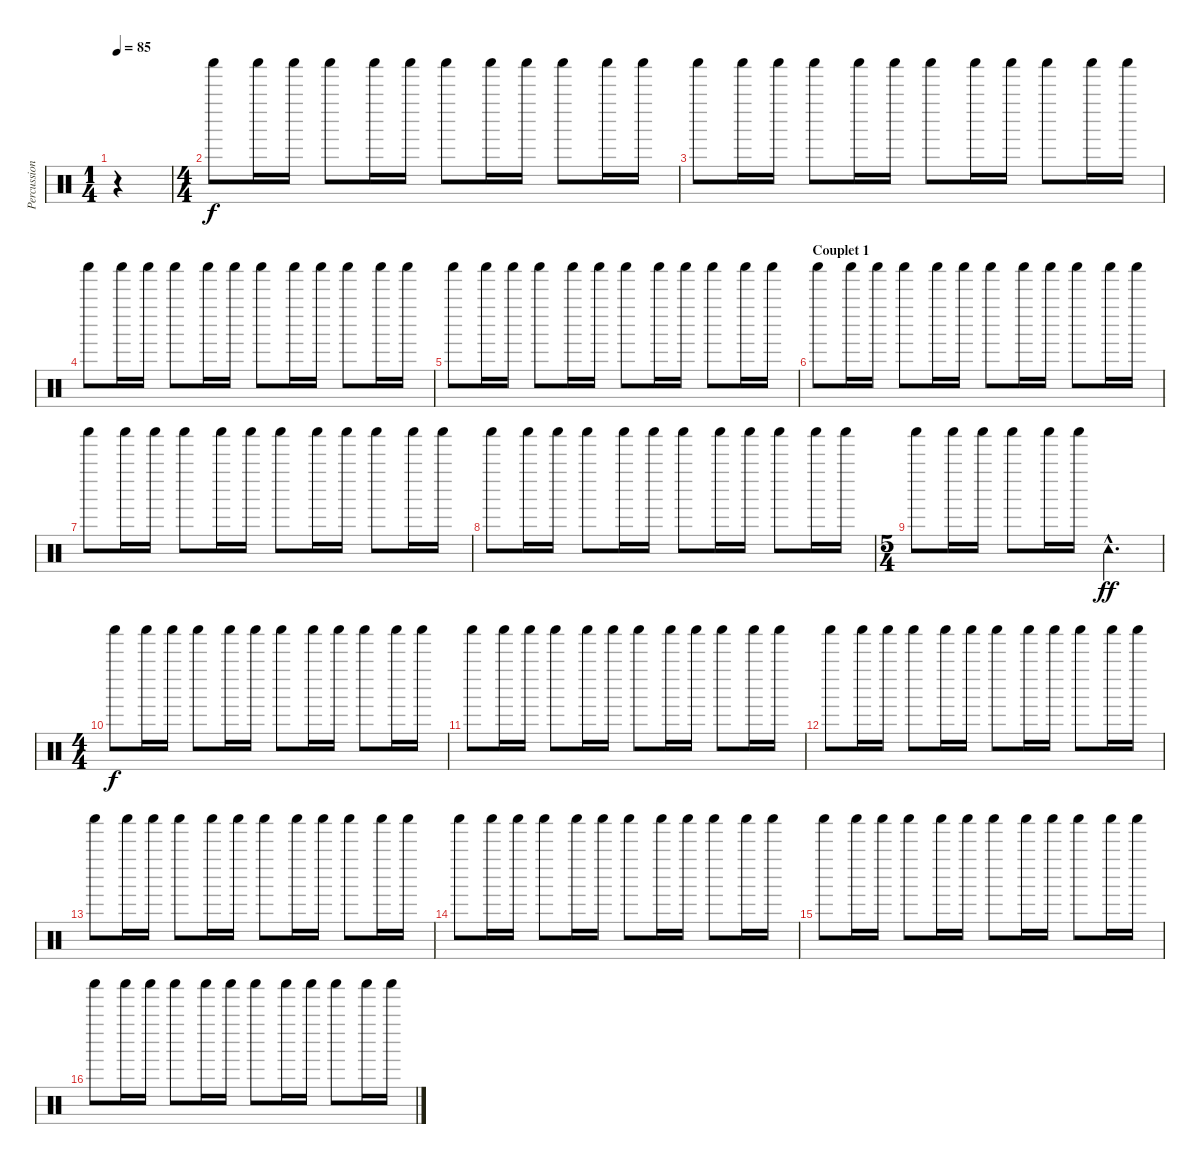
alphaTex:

\track ("Percussion" "Percussion") {instrument percussion}
\staff {score}
\articulation defaults
\ts (1 4)
\tempo 85
\clef neutral
\ks c
r.4{dy f} |
\ts (4 4)
"Shaker (hit)".8 "Shaker (hit)".16 "Shaker (hit)".16 "Shaker (hit)".8 "Shaker (hit)".16 "Shaker (hit)".16 "Shaker (hit)".8 "Shaker (hit)".16 "Shaker (hit)".16 "Shaker (hit)".8 "Shaker (hit)".16 "Shaker (hit)".16 |
"Shaker (hit)".8 "Shaker (hit)".16 "Shaker (hit)".16 "Shaker (hit)".8 "Shaker (hit)".16 "Shaker (hit)".16 "Shaker (hit)".8 "Shaker (hit)".16 "Shaker (hit)".16 "Shaker (hit)".8 "Shaker (hit)".16 "Shaker (hit)".16 |
"Shaker (hit)".8 "Shaker (hit)".16 "Shaker (hit)".16 "Shaker (hit)".8 "Shaker (hit)".16 "Shaker (hit)".16 "Shaker (hit)".8 "Shaker (hit)".16 "Shaker (hit)".16 "Shaker (hit)".8 "Shaker (hit)".16 "Shaker (hit)".16 |
"Shaker (hit)".8 "Shaker (hit)".16 "Shaker (hit)".16 "Shaker (hit)".8 "Shaker (hit)".16 "Shaker (hit)".16 "Shaker (hit)".8 "Shaker (hit)".16 "Shaker (hit)".16 "Shaker (hit)".8 "Shaker (hit)".16 "Shaker (hit)".16 |
\section ("" "Couplet 1")
"Shaker (hit)".8 "Shaker (hit)".16 "Shaker (hit)".16 "Shaker (hit)".8 "Shaker (hit)".16 "Shaker (hit)".16 "Shaker (hit)".8 "Shaker (hit)".16 "Shaker (hit)".16 "Shaker (hit)".8 "Shaker (hit)".16 "Shaker (hit)".16 |
"Shaker (hit)".8 "Shaker (hit)".16 "Shaker (hit)".16 "Shaker (hit)".8 "Shaker (hit)".16 "Shaker (hit)".16 "Shaker (hit)".8 "Shaker (hit)".16 "Shaker (hit)".16 "Shaker (hit)".8 "Shaker (hit)".16 "Shaker (hit)".16 |
"Shaker (hit)".8 "Shaker (hit)".16 "Shaker (hit)".16 "Shaker (hit)".8 "Shaker (hit)".16 "Shaker (hit)".16 "Shaker (hit)".8 "Shaker (hit)".16 "Shaker (hit)".16 "Shaker (hit)".8 "Shaker (hit)".16 "Shaker (hit)".16 |
\ts (5 4)
"Shaker (hit)".8 "Shaker (hit)".16 "Shaker (hit)".16 "Shaker (hit)".8 "Shaker (hit)".16 "Shaker (hit)".16 "Tambourine (hit)"{hac}.2{d dy ff} |
\ts (4 4)
"Shaker (hit)".8{dy f} "Shaker (hit)".16 "Shaker (hit)".16 "Shaker (hit)".8 "Shaker (hit)".16 "Shaker (hit)".16 "Shaker (hit)".8 "Shaker (hit)".16 "Shaker (hit)".16 "Shaker (hit)".8 "Shaker (hit)".16 "Shaker (hit)".16 |
"Shaker (hit)".8 "Shaker (hit)".16 "Shaker (hit)".16 "Shaker (hit)".8 "Shaker (hit)".16 "Shaker (hit)".16 "Shaker (hit)".8 "Shaker (hit)".16 "Shaker (hit)".16 "Shaker (hit)".8 "Shaker (hit)".16 "Shaker (hit)".16 |
"Shaker (hit)".8 "Shaker (hit)".16 "Shaker (hit)".16 "Shaker (hit)".8 "Shaker (hit)".16 "Shaker (hit)".16 "Shaker (hit)".8 "Shaker (hit)".16 "Shaker (hit)".16 "Shaker (hit)".8 "Shaker (hit)".16 "Shaker (hit)".16 |
"Shaker (hit)".8 "Shaker (hit)".16 "Shaker (hit)".16 "Shaker (hit)".8 "Shaker (hit)".16 "Shaker (hit)".16 "Shaker (hit)".8 "Shaker (hit)".16 "Shaker (hit)".16 "Shaker (hit)".8 "Shaker (hit)".16 "Shaker (hit)".16 |
"Shaker (hit)".8 "Shaker (hit)".16 "Shaker (hit)".16 "Shaker (hit)".8 "Shaker (hit)".16 "Shaker (hit)".16 "Shaker (hit)".8 "Shaker (hit)".16 "Shaker (hit)".16 "Shaker (hit)".8 "Shaker (hit)".16 "Shaker (hit)".16 |
"Shaker (hit)".8 "Shaker (hit)".16 "Shaker (hit)".16 "Shaker (hit)".8 "Shaker (hit)".16 "Shaker (hit)".16 "Shaker (hit)".8 "Shaker (hit)".16 "Shaker (hit)".16 "Shaker (hit)".8 "Shaker (hit)".16 "Shaker (hit)".16 |
"Shaker (hit)".8 "Shaker (hit)".16 "Shaker (hit)".16 "Shaker (hit)".8 "Shaker (hit)".16 "Shaker (hit)".16 "Shaker (hit)".8 "Shaker (hit)".16 "Shaker (hit)".16 "Shaker (hit)".8 "Shaker (hit)".16 "Shaker (hit)".16
